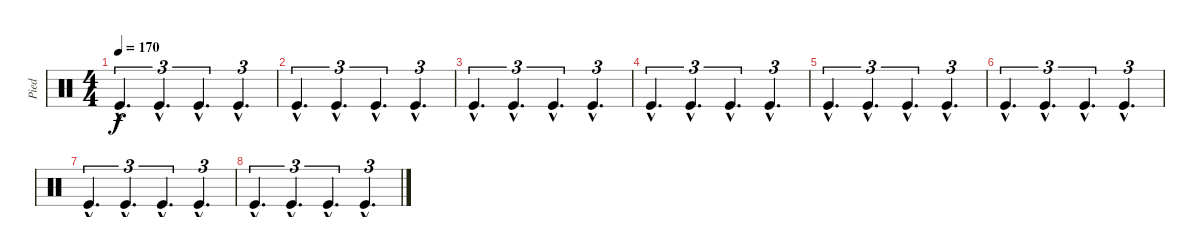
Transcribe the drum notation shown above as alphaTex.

\track ("Pied" "Pied") {instrument percussion}
\staff {score}
\articulation defaults
\ts (4 4)
\tempo 170
\clef neutral
\ks c "Kick (hit)"{hac}.4{d tu (3 2) dy f} "Kick (hit)"{hac}.4{d tu (3 2)} "Kick (hit)"{hac}.4{d tu (3 2)} "Kick (hit)"{hac}.4{d tu (3 2)}
|
"Kick (hit)"{hac}.4{d tu (3 2)} "Kick (hit)"{hac}.4{d tu (3 2)} "Kick (hit)"{hac}.4{d tu (3 2)} "Kick (hit)"{hac}.4{d tu (3 2)} |
"Kick (hit)"{hac}.4{d tu (3 2)} "Kick (hit)"{hac}.4{d tu (3 2)} "Kick (hit)"{hac}.4{d tu (3 2)} "Kick (hit)"{hac}.4{d tu (3 2)} |
"Kick (hit)"{hac}.4{d tu (3 2)} "Kick (hit)"{hac}.4{d tu (3 2)} "Kick (hit)"{hac}.4{d tu (3 2)} "Kick (hit)"{hac}.4{d tu (3 2)} |
"Kick (hit)"{hac}.4{d tu (3 2)} "Kick (hit)"{hac}.4{d tu (3 2)} "Kick (hit)"{hac}.4{d tu (3 2)} "Kick (hit)"{hac}.4{d tu (3 2)} |
"Kick (hit)"{hac}.4{d tu (3 2)} "Kick (hit)"{hac}.4{d tu (3 2)} "Kick (hit)"{hac}.4{d tu (3 2)} "Kick (hit)"{hac}.4{d tu (3 2)} |
"Kick (hit)"{hac}.4{d tu (3 2)} "Kick (hit)"{hac}.4{d tu (3 2)} "Kick (hit)"{hac}.4{d tu (3 2)} "Kick (hit)"{hac}.4{d tu (3 2)} |
"Kick (hit)"{hac}.4{d tu (3 2)} "Kick (hit)"{hac}.4{d tu (3 2)} "Kick (hit)"{hac}.4{d tu (3 2)} "Kick (hit)"{hac}.4{d tu (3 2)}
